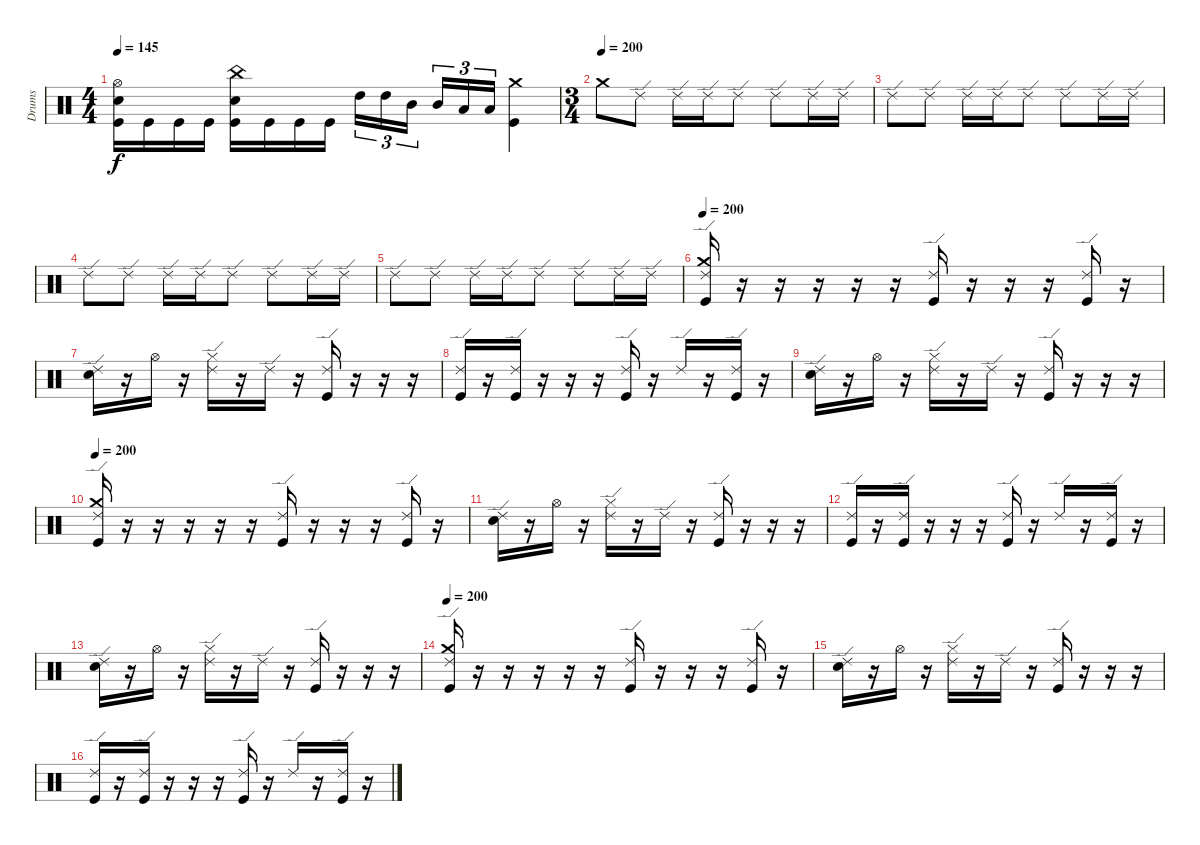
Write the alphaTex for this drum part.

\track ("Drums" "Drums") {instrument percussion}
\staff {score}
\articulation defaults
\ts (4 4)
\tempo 145
\clef neutral
\ks c
("Hi-Hat (open)" "Electric Snare (hit)" "Kick (hit)").16{dy f} "Kick (hit)".16 "Kick (hit)".16 "Kick (hit)".16 ("China (hit)" "Electric Snare (hit)" "Kick (hit)").16 "Kick (hit)".16 "Kick (hit)".16 "Kick (hit)".16 "High Tom (hit)".16{tu (3 2)} "High Tom (hit)".16{tu (3 2)} "Mid Tom (hit)".16{tu (3 2)} "Mid Tom (hit)".16{tu (3 2)} "Low Tom (hit)".16{tu (3 2)} "Low Tom (hit)".16{tu (3 2)} ("Kick (hit)" "Crash medium (hit)").4 |
\ts (3 4)
\tempo (200)
"Crash medium (hit)".8 "Ride (edge) 2".8 "Ride (edge) 2".16 "Ride (edge) 2".16 "Ride (edge) 2".8 "Ride (edge) 2".8 "Ride (edge) 2".16 "Ride (edge) 2".16 |
"Ride (edge) 2".8 "Ride (edge) 2".8 "Ride (edge) 2".16 "Ride (edge) 2".16 "Ride (edge) 2".8 "Ride (edge) 2".8 "Ride (edge) 2".16 "Ride (edge) 2".16 |
"Ride (edge) 2".8 "Ride (edge) 2".8 "Ride (edge) 2".16 "Ride (edge) 2".16 "Ride (edge) 2".8 "Ride (edge) 2".8 "Ride (edge) 2".16 "Ride (edge) 2".16 |
"Ride (edge) 2".8 "Ride (edge) 2".8 "Ride (edge) 2".16 "Ride (edge) 2".16 "Ride (edge) 2".8 "Ride (edge) 2".8 "Ride (edge) 2".16 "Ride (edge) 2".16 |
\tempo 200
("Ride (edge) 2" "Kick (hit)" "Crash medium (hit)").16 r.16 r.16 r.16 r.16 r.16 ("Ride (edge) 2" "Kick (hit)").16 r.16 r.16 r.16 ("Ride (edge) 2" "Kick (hit)").16 r.16 |
("Ride (edge) 2" "Electric Snare (hit)").16 r.16 "Hi-Hat (open)".16 r.16 ("Ride (edge) 2" "Hi-Hat (closed)").16 r.16 "Ride (edge) 2".16 r.16 ("Ride (edge) 2" "Kick (hit)").16 r.16 r.16 r.16 |
("Ride (edge) 2" "Kick (hit)").16 r.16 ("Ride (edge) 2" "Kick (hit)").16 r.16 r.16 r.16 ("Ride (edge) 2" "Kick (hit)").16 r.16 "Ride (edge) 2".16 r.16 ("Ride (edge) 2" "Kick (hit)").16 r.16 |
("Ride (edge) 2" "Electric Snare (hit)").16 r.16 "Hi-Hat (open)".16 r.16 ("Ride (edge) 2" "Hi-Hat (closed)").16 r.16 "Ride (edge) 2".16 r.16 ("Ride (edge) 2" "Kick (hit)").16 r.16 r.16 r.16 |
\tempo 200
("Ride (edge) 2" "Kick (hit)" "Crash medium (hit)").16 r.16 r.16 r.16 r.16 r.16 ("Ride (edge) 2" "Kick (hit)").16 r.16 r.16 r.16 ("Ride (edge) 2" "Kick (hit)").16 r.16 |
("Ride (edge) 2" "Electric Snare (hit)").16 r.16 "Hi-Hat (open)".16 r.16 ("Ride (edge) 2" "Hi-Hat (closed)").16 r.16 "Ride (edge) 2".16 r.16 ("Ride (edge) 2" "Kick (hit)").16 r.16 r.16 r.16 |
("Ride (edge) 2" "Kick (hit)").16 r.16 ("Ride (edge) 2" "Kick (hit)").16 r.16 r.16 r.16 ("Ride (edge) 2" "Kick (hit)").16 r.16 "Ride (edge) 2".16 r.16 ("Ride (edge) 2" "Kick (hit)").16 r.16 |
("Ride (edge) 2" "Electric Snare (hit)").16 r.16 "Hi-Hat (open)".16 r.16 ("Ride (edge) 2" "Hi-Hat (closed)").16 r.16 "Ride (edge) 2".16 r.16 ("Ride (edge) 2" "Kick (hit)").16 r.16 r.16 r.16 |
\tempo 200
("Ride (edge) 2" "Kick (hit)" "Crash medium (hit)").16 r.16 r.16 r.16 r.16 r.16 ("Ride (edge) 2" "Kick (hit)").16 r.16 r.16 r.16 ("Ride (edge) 2" "Kick (hit)").16 r.16 |
("Ride (edge) 2" "Electric Snare (hit)").16 r.16 "Hi-Hat (open)".16 r.16 ("Ride (edge) 2" "Hi-Hat (closed)").16 r.16 "Ride (edge) 2".16 r.16 ("Ride (edge) 2" "Kick (hit)").16 r.16 r.16 r.16 |
("Ride (edge) 2" "Kick (hit)").16 r.16 ("Ride (edge) 2" "Kick (hit)").16 r.16 r.16 r.16 ("Ride (edge) 2" "Kick (hit)").16 r.16 "Ride (edge) 2".16 r.16 ("Ride (edge) 2" "Kick (hit)").16 r.16
